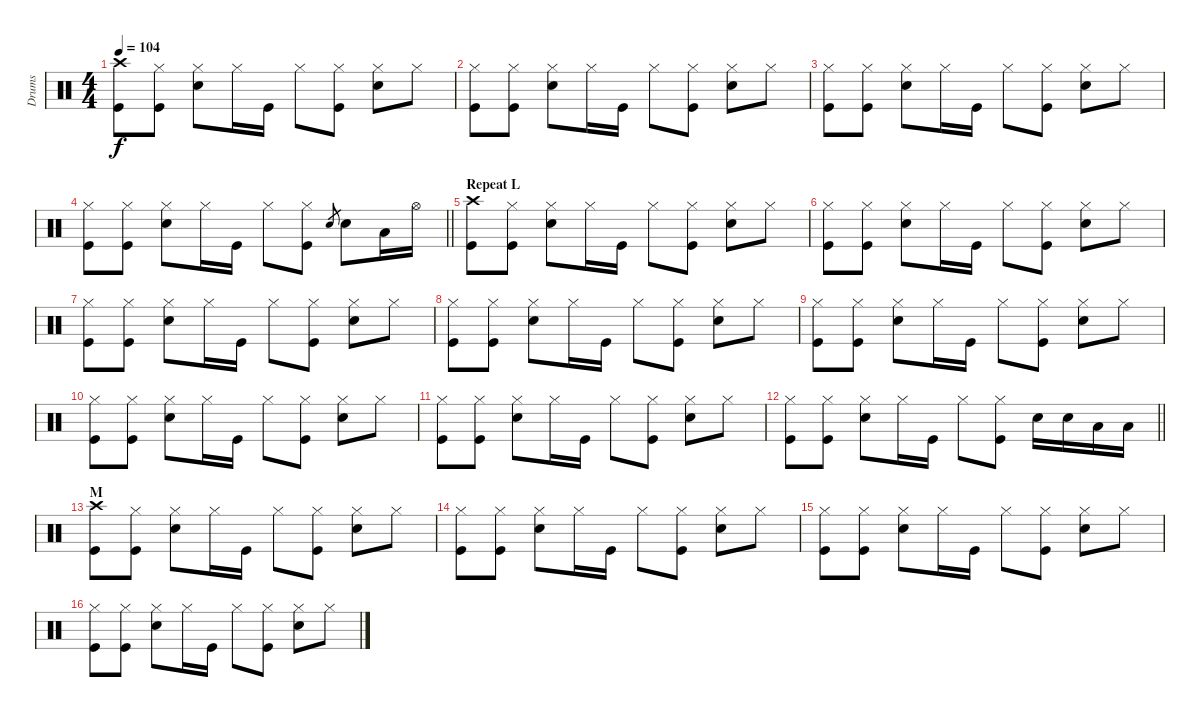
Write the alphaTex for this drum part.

\track ("Drums" "Drums") {instrument percussion}
\staff {score}
\articulation defaults
\ts (4 4)
\tempo 104
\clef neutral
\ks c
("Crash high (hit)" "Kick (hit)").8{dy f} ("Hi-Hat (closed)" "Kick (hit)").8 ("Hi-Hat (closed)" "Electric Snare (hit)").8 "Hi-Hat (closed)".16 "Kick (hit)".16 "Hi-Hat (closed)".8 ("Hi-Hat (closed)" "Kick (hit)").8 ("Hi-Hat (closed)" "Electric Snare (hit)").8 "Hi-Hat (closed)".8 |
("Hi-Hat (closed)" "Kick (hit)").8 ("Hi-Hat (closed)" "Kick (hit)").8 ("Hi-Hat (closed)" "Electric Snare (hit)").8 "Hi-Hat (closed)".16 "Kick (hit)".16 "Hi-Hat (closed)".8 ("Hi-Hat (closed)" "Kick (hit)").8 ("Hi-Hat (closed)" "Electric Snare (hit)").8 "Hi-Hat (closed)".8 |
("Hi-Hat (closed)" "Kick (hit)").8 ("Hi-Hat (closed)" "Kick (hit)").8 ("Hi-Hat (closed)" "Electric Snare (hit)").8 "Hi-Hat (closed)".16 "Kick (hit)".16 "Hi-Hat (closed)".8 ("Hi-Hat (closed)" "Kick (hit)").8 ("Hi-Hat (closed)" "Electric Snare (hit)").8 "Hi-Hat (closed)".8 |
\barLineRight lightlight
("Hi-Hat (closed)" "Kick (hit)").8 ("Hi-Hat (closed)" "Kick (hit)").8 ("Hi-Hat (closed)" "Electric Snare (hit)").8 "Hi-Hat (closed)".16 "Kick (hit)".16 "Hi-Hat (closed)".8 ("Hi-Hat (closed)" "Kick (hit)").8 "Electric Snare (hit)".8{gr} "Electric Snare (hit)".8 "Low Tom (hit)".16 "Hi-Hat (open)".16 |
\section ("" "Repeat L")
("Crash high (hit)" "Kick (hit)").8 ("Hi-Hat (closed)" "Kick (hit)").8 ("Hi-Hat (closed)" "Electric Snare (hit)").8 "Hi-Hat (closed)".16 "Kick (hit)".16 "Hi-Hat (closed)".8 ("Hi-Hat (closed)" "Kick (hit)").8 ("Hi-Hat (closed)" "Electric Snare (hit)").8 "Hi-Hat (closed)".8 |
("Hi-Hat (closed)" "Kick (hit)").8 ("Hi-Hat (closed)" "Kick (hit)").8 ("Hi-Hat (closed)" "Electric Snare (hit)").8 "Hi-Hat (closed)".16 "Kick (hit)".16 "Hi-Hat (closed)".8 ("Hi-Hat (closed)" "Kick (hit)").8 ("Hi-Hat (closed)" "Electric Snare (hit)").8 "Hi-Hat (closed)".8 |
("Hi-Hat (closed)" "Kick (hit)").8 ("Hi-Hat (closed)" "Kick (hit)").8 ("Hi-Hat (closed)" "Electric Snare (hit)").8 "Hi-Hat (closed)".16 "Kick (hit)".16 "Hi-Hat (closed)".8 ("Hi-Hat (closed)" "Kick (hit)").8 ("Hi-Hat (closed)" "Electric Snare (hit)").8 "Hi-Hat (closed)".8 |
("Hi-Hat (closed)" "Kick (hit)").8 ("Hi-Hat (closed)" "Kick (hit)").8 ("Hi-Hat (closed)" "Electric Snare (hit)").8 "Hi-Hat (closed)".16 "Kick (hit)".16 "Hi-Hat (closed)".8 ("Hi-Hat (closed)" "Kick (hit)").8 ("Hi-Hat (closed)" "Electric Snare (hit)").8 "Hi-Hat (closed)".8 |
("Hi-Hat (closed)" "Kick (hit)").8 ("Hi-Hat (closed)" "Kick (hit)").8 ("Hi-Hat (closed)" "Electric Snare (hit)").8 "Hi-Hat (closed)".16 "Kick (hit)".16 "Hi-Hat (closed)".8 ("Hi-Hat (closed)" "Kick (hit)").8 ("Hi-Hat (closed)" "Electric Snare (hit)").8 "Hi-Hat (closed)".8 |
("Hi-Hat (closed)" "Kick (hit)").8 ("Hi-Hat (closed)" "Kick (hit)").8 ("Hi-Hat (closed)" "Electric Snare (hit)").8 "Hi-Hat (closed)".16 "Kick (hit)".16 "Hi-Hat (closed)".8 ("Hi-Hat (closed)" "Kick (hit)").8 ("Hi-Hat (closed)" "Electric Snare (hit)").8 "Hi-Hat (closed)".8 |
("Hi-Hat (closed)" "Kick (hit)").8 ("Hi-Hat (closed)" "Kick (hit)").8 ("Hi-Hat (closed)" "Electric Snare (hit)").8 "Hi-Hat (closed)".16 "Kick (hit)".16 "Hi-Hat (closed)".8 ("Hi-Hat (closed)" "Kick (hit)").8 ("Hi-Hat (closed)" "Electric Snare (hit)").8 "Hi-Hat (closed)".8 |
\barLineRight lightlight
("Hi-Hat (closed)" "Kick (hit)").8 ("Hi-Hat (closed)" "Kick (hit)").8 ("Hi-Hat (closed)" "Electric Snare (hit)").8 "Hi-Hat (closed)".16 "Kick (hit)".16 "Hi-Hat (closed)".8 ("Hi-Hat (closed)" "Kick (hit)").8 "Electric Snare (hit)".16 "Electric Snare (hit)".16 "Low Tom (hit)".16 "Low Tom (hit)".16 |
\section ("" "M")
("Crash high (hit)" "Kick (hit)").8 ("Hi-Hat (closed)" "Kick (hit)").8 ("Hi-Hat (closed)" "Electric Snare (hit)").8 "Hi-Hat (closed)".16 "Kick (hit)".16 "Hi-Hat (closed)".8 ("Hi-Hat (closed)" "Kick (hit)").8 ("Hi-Hat (closed)" "Electric Snare (hit)").8 "Hi-Hat (closed)".8 |
("Hi-Hat (closed)" "Kick (hit)").8 ("Hi-Hat (closed)" "Kick (hit)").8 ("Hi-Hat (closed)" "Electric Snare (hit)").8 "Hi-Hat (closed)".16 "Kick (hit)".16 "Hi-Hat (closed)".8 ("Hi-Hat (closed)" "Kick (hit)").8 ("Hi-Hat (closed)" "Electric Snare (hit)").8 "Hi-Hat (closed)".8 |
("Hi-Hat (closed)" "Kick (hit)").8 ("Hi-Hat (closed)" "Kick (hit)").8 ("Hi-Hat (closed)" "Electric Snare (hit)").8 "Hi-Hat (closed)".16 "Kick (hit)".16 "Hi-Hat (closed)".8 ("Hi-Hat (closed)" "Kick (hit)").8 ("Hi-Hat (closed)" "Electric Snare (hit)").8 "Hi-Hat (closed)".8 |
("Hi-Hat (closed)" "Kick (hit)").8 ("Hi-Hat (closed)" "Kick (hit)").8 ("Hi-Hat (closed)" "Electric Snare (hit)").8 "Hi-Hat (closed)".16 "Kick (hit)".16 "Hi-Hat (closed)".8 ("Hi-Hat (closed)" "Kick (hit)").8 ("Hi-Hat (closed)" "Electric Snare (hit)").8 "Hi-Hat (closed)".8
